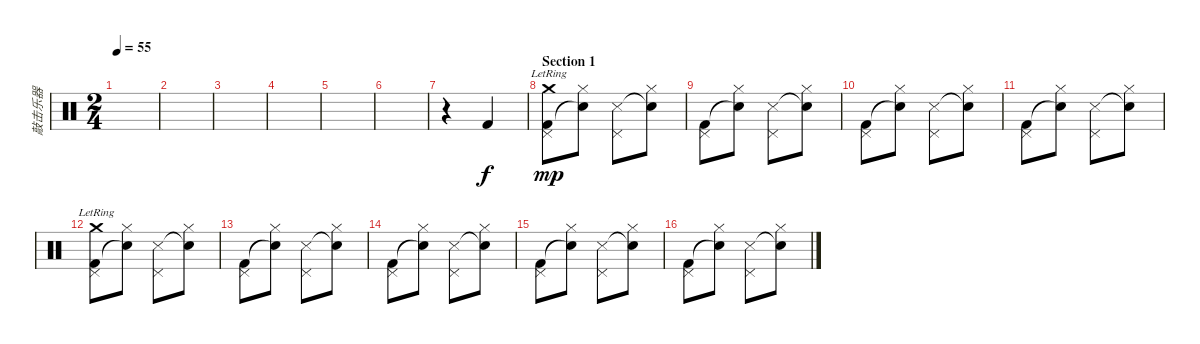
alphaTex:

\track ("敲击乐器" "敲击乐器") {instrument percussion}
\staff {score}
\articulation defaults
\ts (2 4)
\tempo 55
\clef neutral
\ks c
|
|
|
|
|
|
r.4 "Kick (hit) 2".4 |
\section ("" "Section 1")
("Kick (hit) 2" "Crash medium (hit)"{lr} "Pedal Hi-Hat (hit)").8{dy mp} ("Snare (hit)"{t} "Hi-Hat (closed)").8 ("Snare (side stick) 3" "Pedal Hi-Hat (hit)").8 ("Snare (hit)"{t} "Hi-Hat (closed)").8 |
("Kick (hit) 2" "Pedal Hi-Hat (hit)").8 ("Snare (hit)"{t} "Hi-Hat (closed)").8 ("Snare (side stick) 3" "Pedal Hi-Hat (hit)").8 ("Snare (hit)"{t} "Hi-Hat (closed)").8 |
("Kick (hit) 2" "Pedal Hi-Hat (hit)").8 ("Snare (hit)"{t} "Hi-Hat (closed)").8 ("Snare (side stick) 3" "Pedal Hi-Hat (hit)").8 ("Snare (hit)"{t} "Hi-Hat (closed)").8 |
("Kick (hit) 2" "Pedal Hi-Hat (hit)").8 ("Snare (hit)"{t} "Hi-Hat (closed)").8 ("Snare (side stick) 3" "Pedal Hi-Hat (hit)").8 ("Snare (hit)"{t} "Hi-Hat (closed)").8 |
("Kick (hit) 2" "Crash medium (hit)"{lr} "Pedal Hi-Hat (hit)").8 ("Snare (hit)"{t} "Hi-Hat (closed)").8 ("Snare (side stick) 3" "Pedal Hi-Hat (hit)").8 ("Snare (hit)"{t} "Hi-Hat (closed)").8 |
("Kick (hit) 2" "Pedal Hi-Hat (hit)").8 ("Snare (hit)"{t} "Hi-Hat (closed)").8 ("Snare (side stick) 3" "Pedal Hi-Hat (hit)").8 ("Snare (hit)"{t} "Hi-Hat (closed)").8 |
("Kick (hit) 2" "Pedal Hi-Hat (hit)").8 ("Snare (hit)"{t} "Hi-Hat (closed)").8 ("Snare (side stick) 3" "Pedal Hi-Hat (hit)").8 ("Snare (hit)"{t} "Hi-Hat (closed)").8 |
("Kick (hit) 2" "Pedal Hi-Hat (hit)").8 ("Snare (hit)"{t} "Hi-Hat (closed)").8 ("Snare (side stick) 3" "Pedal Hi-Hat (hit)").8 ("Snare (hit)"{t} "Hi-Hat (closed)").8 |
("Kick (hit) 2" "Pedal Hi-Hat (hit)").8 ("Snare (hit)"{t} "Hi-Hat (closed)").8 ("Snare (side stick) 3" "Pedal Hi-Hat (hit)").8 ("Snare (hit)"{t} "Hi-Hat (closed)").8
